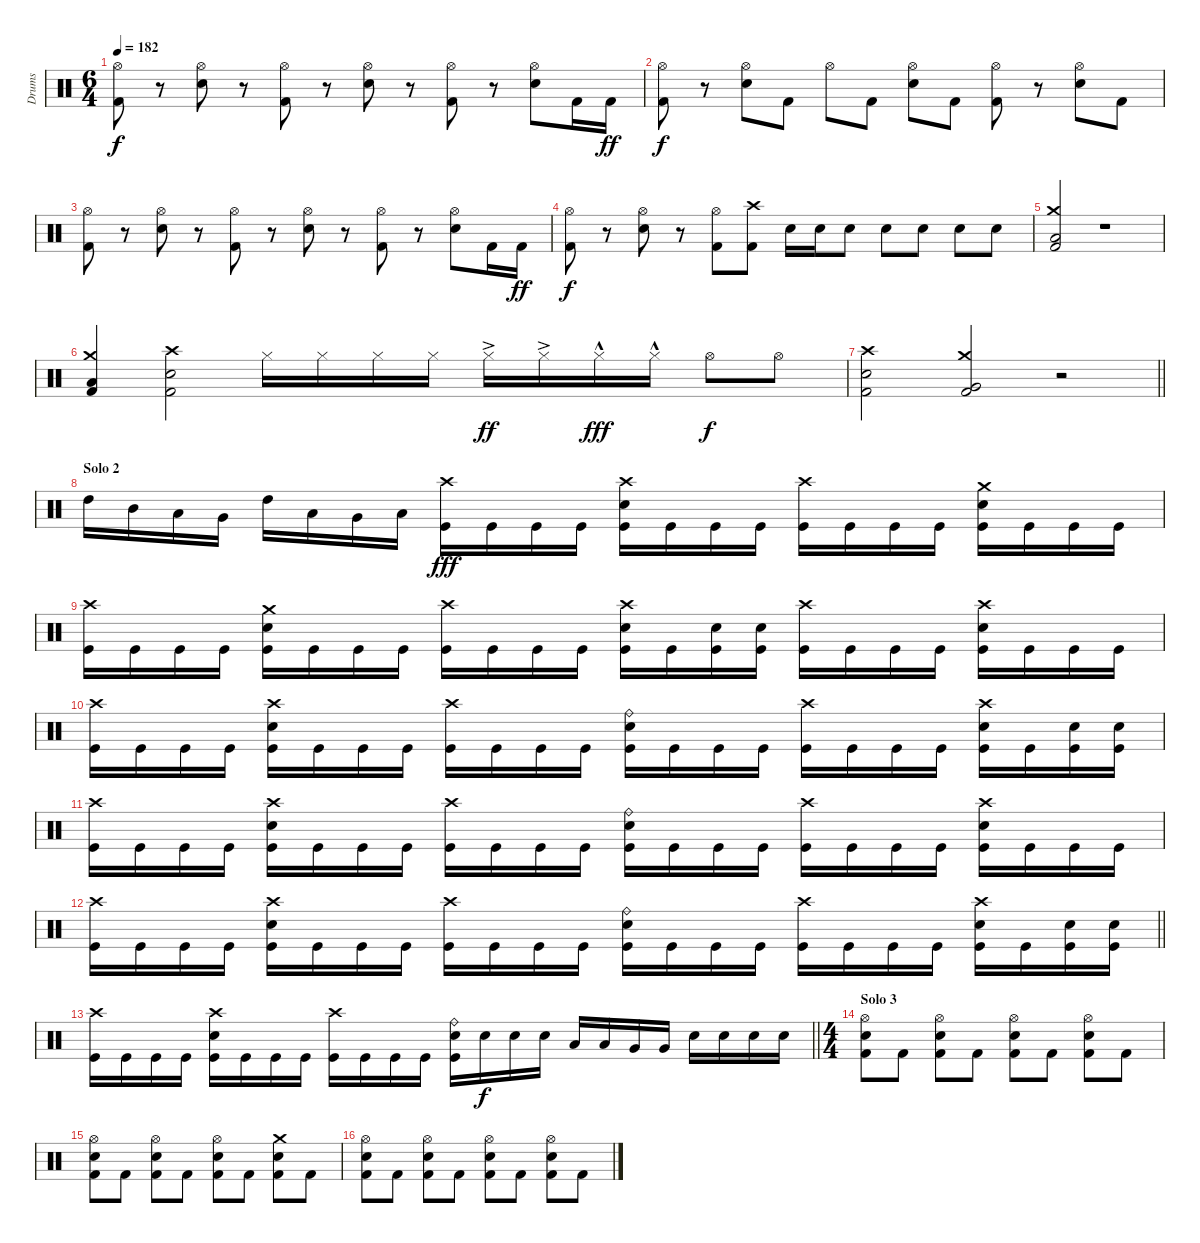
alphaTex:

\track ("Drums" "Drums") {instrument percussion}
\staff {score}
\articulation defaults
\ts (6 4)
\tempo 182
\clef neutral
\ks c
("Hi-Hat (open)" "Kick (hit) 2").8{dy f} r.8 ("Hi-Hat (open)" "Electric Snare (hit)").8 r.8 ("Hi-Hat (open)" "Kick (hit) 2").8 r.8 ("Hi-Hat (open)" "Electric Snare (hit)").8 r.8 ("Hi-Hat (open)" "Kick (hit) 2").8 r.8 ("Hi-Hat (open)" "Electric Snare (hit)").8 "Kick (hit) 2".16 "Kick (hit) 2".16{dy ff} |
("Hi-Hat (open)" "Kick (hit) 2").8{dy f} r.8 ("Hi-Hat (open)" "Electric Snare (hit)").8 "Kick (hit) 2".8 "Hi-Hat (open)".8 "Kick (hit) 2".8 ("Hi-Hat (open)" "Electric Snare (hit)").8 "Kick (hit) 2".8 ("Hi-Hat (open)" "Kick (hit) 2").8 r.8 ("Hi-Hat (open)" "Electric Snare (hit)").8 "Kick (hit) 2".8 |
("Hi-Hat (open)" "Kick (hit) 2").8 r.8 ("Hi-Hat (open)" "Electric Snare (hit)").8 r.8 ("Hi-Hat (open)" "Kick (hit) 2").8 r.8 ("Hi-Hat (open)" "Electric Snare (hit)").8 r.8 ("Hi-Hat (open)" "Kick (hit) 2").8 r.8 ("Hi-Hat (open)" "Electric Snare (hit)").8 "Kick (hit) 2".16 "Kick (hit) 2".16{dy ff} |
("Hi-Hat (open)" "Kick (hit) 2").8{dy f} r.8 ("Hi-Hat (open)" "Electric Snare (hit)").8 r.8 ("Hi-Hat (open)" "Kick (hit) 2").8 ("Kick (hit) 2" "Crash high (hit)").8 "Electric Snare (hit)".16 "Electric Snare (hit)".16 "Electric Snare (hit)".8 "Electric Snare (hit)".8 "Electric Snare (hit)".8 "Electric Snare (hit)".8 "Electric Snare (hit)".8 |
("Crash medium (hit)" "Low Floor Tom (hit)" "Kick (hit) 2").2 r.1 |
("Crash medium (hit)" "Low Floor Tom (hit)" "Kick (hit) 2").4 ("Crash high (hit)" "Electric Snare (hit)" "Kick (hit) 2").2 "Hi-Hat (closed)".16 "Hi-Hat (closed)".16 "Hi-Hat (closed)".16 "Hi-Hat (closed)".16 "Hi-Hat (closed)"{ac}.16{dy ff} "Hi-Hat (closed)"{ac}.16 "Hi-Hat (closed)"{hac}.16{dy fff} "Hi-Hat (closed)"{hac}.16 "Hi-Hat (open)".8{dy f} "Hi-Hat (open)".8 |
\barLineRight lightlight
("Crash high (hit)" "Electric Snare (hit)" "Kick (hit) 2").2 ("Crash medium (hit)" "Very Low Tom (hit)" "Kick (hit) 2").2 r.2 |
\section ("" "Solo 2")
"High Tom (hit)".16 "Mid Tom (hit)".16 "Low Tom (hit)".16 "Very Low Tom (hit)".16 "High Tom (hit)".16 "Low Tom (hit)".16 "Very Low Tom (hit)".16 "Low Floor Tom (hit)".16 ("Crash high (hit)" "Kick (hit)").16{dy fff} "Kick (hit)".16 "Kick (hit)".16 "Kick (hit)".16 ("Crash high (hit)" "Snare (hit) 2" "Kick (hit)").16 "Kick (hit)".16 "Kick (hit)".16 "Kick (hit)".16 ("Crash high (hit)" "Kick (hit)").16 "Kick (hit)".16 "Kick (hit)".16 "Kick (hit)".16 ("Crash medium (hit)" "Snare (hit) 2" "Kick (hit)").16 "Kick (hit)".16 "Kick (hit)".16 "Kick (hit)".16 |
("Crash high (hit)" "Kick (hit)").16 "Kick (hit)".16 "Kick (hit)".16 "Kick (hit)".16 ("Crash medium (hit)" "Snare (hit) 2" "Kick (hit)").16 "Kick (hit)".16 "Kick (hit)".16 "Kick (hit)".16 ("Crash high (hit)" "Kick (hit)").16 "Kick (hit)".16 "Kick (hit)".16 "Kick (hit)".16 ("Crash high (hit)" "Snare (hit) 2" "Kick (hit)").16 "Kick (hit)".16 ("Snare (hit) 2" "Kick (hit)").16 ("Snare (hit) 2" "Kick (hit)").16 ("Crash high (hit)" "Kick (hit)").16 "Kick (hit)".16 "Kick (hit)".16 "Kick (hit)".16 ("Crash high (hit)" "Snare (hit) 2" "Kick (hit)").16 "Kick (hit)".16 "Kick (hit)".16 "Kick (hit)".16 |
("Crash high (hit)" "Kick (hit)").16 "Kick (hit)".16 "Kick (hit)".16 "Kick (hit)".16 ("Crash high (hit)" "Snare (hit) 2" "Kick (hit)").16 "Kick (hit)".16 "Kick (hit)".16 "Kick (hit)".16 ("Crash high (hit)" "Kick (hit)").16 "Kick (hit)".16 "Kick (hit)".16 "Kick (hit)".16 ("Ride (bell)" "Snare (hit) 2" "Kick (hit)").16 "Kick (hit)".16 "Kick (hit)".16 "Kick (hit)".16 ("Crash high (hit)" "Kick (hit)").16 "Kick (hit)".16 "Kick (hit)".16 "Kick (hit)".16 ("Crash high (hit)" "Snare (hit) 2" "Kick (hit)").16 "Kick (hit)".16 ("Snare (hit) 2" "Kick (hit)").16 ("Snare (hit) 2" "Kick (hit)").16 |
("Crash high (hit)" "Kick (hit)").16 "Kick (hit)".16 "Kick (hit)".16 "Kick (hit)".16 ("Crash high (hit)" "Snare (hit) 2" "Kick (hit)").16 "Kick (hit)".16 "Kick (hit)".16 "Kick (hit)".16 ("Crash high (hit)" "Kick (hit)").16 "Kick (hit)".16 "Kick (hit)".16 "Kick (hit)".16 ("Ride (bell)" "Snare (hit) 2" "Kick (hit)").16 "Kick (hit)".16 "Kick (hit)".16 "Kick (hit)".16 ("Crash high (hit)" "Kick (hit)").16 "Kick (hit)".16 "Kick (hit)".16 "Kick (hit)".16 ("Crash high (hit)" "Snare (hit) 2" "Kick (hit)").16 "Kick (hit)".16 "Kick (hit)".16 "Kick (hit)".16 |
\barLineRight lightlight
("Crash high (hit)" "Kick (hit)").16 "Kick (hit)".16 "Kick (hit)".16 "Kick (hit)".16 ("Crash high (hit)" "Snare (hit) 2" "Kick (hit)").16 "Kick (hit)".16 "Kick (hit)".16 "Kick (hit)".16 ("Crash high (hit)" "Kick (hit)").16 "Kick (hit)".16 "Kick (hit)".16 "Kick (hit)".16 ("Ride (bell)" "Snare (hit) 2" "Kick (hit)").16 "Kick (hit)".16 "Kick (hit)".16 "Kick (hit)".16 ("Crash high (hit)" "Kick (hit)").16 "Kick (hit)".16 "Kick (hit)".16 "Kick (hit)".16 ("Crash high (hit)" "Snare (hit) 2" "Kick (hit)").16 "Kick (hit)".16 ("Snare (hit) 2" "Kick (hit)").16 ("Snare (hit) 2" "Kick (hit)").16 |
\barLineRight lightlight
("Crash high (hit)" "Kick (hit)").16 "Kick (hit)".16 "Kick (hit)".16 "Kick (hit)".16 ("Crash high (hit)" "Snare (hit) 2" "Kick (hit)").16 "Kick (hit)".16 "Kick (hit)".16 "Kick (hit)".16 ("Crash high (hit)" "Kick (hit)").16 "Kick (hit)".16 "Kick (hit)".16 "Kick (hit)".16 ("Ride (bell)" "Snare (hit) 2" "Kick (hit)").16 "Electric Snare (hit)".16{dy f} "Electric Snare (hit)".16 "Electric Snare (hit)".16 "Low Tom (hit)".16 "Low Tom (hit)".16 "Very Low Tom (hit)".16 "Very Low Tom (hit)".16 "Electric Snare (hit)".16 "Electric Snare (hit)".16 "Electric Snare (hit)".16 "Electric Snare (hit)".16 |
\ts (4 4)
\section ("" "Solo 3")
("Hi-Hat (open)" "Electric Snare (hit)" "Kick (hit) 2").8 "Kick (hit) 2".8 ("Hi-Hat (open)" "Electric Snare (hit)" "Kick (hit) 2").8 "Kick (hit) 2".8 ("Hi-Hat (open)" "Electric Snare (hit)" "Kick (hit) 2").8 "Kick (hit) 2".8 ("Hi-Hat (open)" "Electric Snare (hit)" "Kick (hit) 2").8 "Kick (hit) 2".8 |
("Hi-Hat (open)" "Electric Snare (hit)" "Kick (hit) 2").8 "Kick (hit) 2".8 ("Hi-Hat (open)" "Electric Snare (hit)" "Kick (hit) 2").8 "Kick (hit) 2".8 ("Hi-Hat (open)" "Electric Snare (hit)" "Kick (hit) 2").8 "Kick (hit) 2".8 ("Crash medium (hit)" "Electric Snare (hit)" "Kick (hit) 2").8 "Kick (hit) 2".8 |
("Hi-Hat (open)" "Electric Snare (hit)" "Kick (hit) 2").8 "Kick (hit) 2".8 ("Hi-Hat (open)" "Electric Snare (hit)" "Kick (hit) 2").8 "Kick (hit) 2".8 ("Hi-Hat (open)" "Electric Snare (hit)" "Kick (hit) 2").8 "Kick (hit) 2".8 ("Hi-Hat (open)" "Electric Snare (hit)" "Kick (hit) 2").8 "Kick (hit) 2".8
